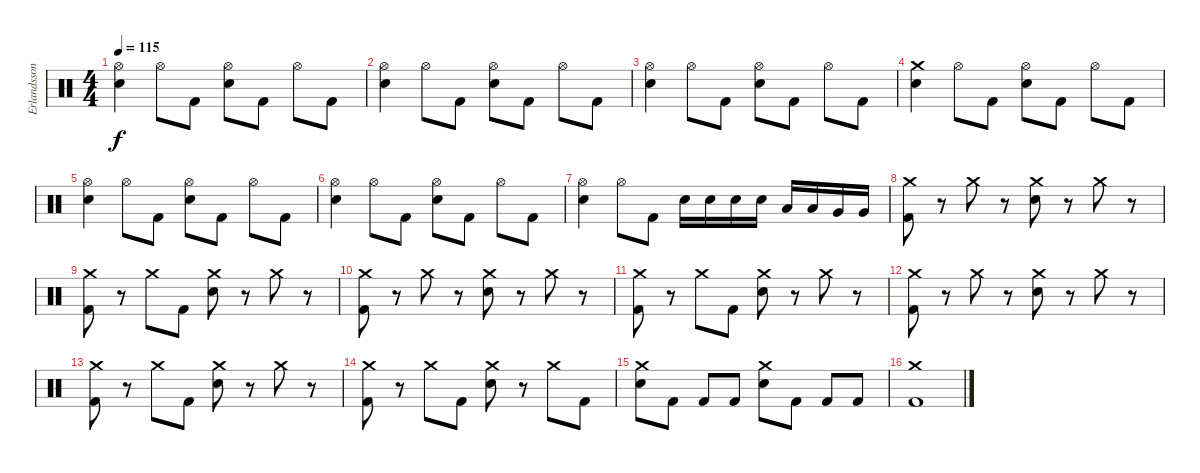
\track ("Erlandsson" "Erlandsson") {instrument percussion}
\staff {score}
\articulation defaults
\ts (4 4)
\tempo 115
\clef neutral
\ks c
("Hi-Hat (open)" "Electric Snare (hit)").4{dy f} "Hi-Hat (open)".8 "Kick (hit) 2".8 ("Hi-Hat (open)" "Electric Snare (hit)").8 "Kick (hit) 2".8 "Hi-Hat (open)".8 "Kick (hit) 2".8 |
("Hi-Hat (open)" "Electric Snare (hit)").4 "Hi-Hat (open)".8 "Kick (hit) 2".8 ("Hi-Hat (open)" "Electric Snare (hit)").8 "Kick (hit) 2".8 "Hi-Hat (open)".8 "Kick (hit) 2".8 |
("Hi-Hat (open)" "Electric Snare (hit)").4 "Hi-Hat (open)".8 "Kick (hit) 2".8 ("Hi-Hat (open)" "Electric Snare (hit)").8 "Kick (hit) 2".8 "Hi-Hat (open)".8 "Kick (hit) 2".8 |
("Crash medium (hit)" "Electric Snare (hit)").4 "Hi-Hat (open)".8 "Kick (hit) 2".8 ("Hi-Hat (open)" "Electric Snare (hit)").8 "Kick (hit) 2".8 "Hi-Hat (open)".8 "Kick (hit) 2".8 |
("Hi-Hat (open)" "Electric Snare (hit)").4 "Hi-Hat (open)".8 "Kick (hit) 2".8 ("Hi-Hat (open)" "Electric Snare (hit)").8 "Kick (hit) 2".8 "Hi-Hat (open)".8 "Kick (hit) 2".8 |
("Hi-Hat (open)" "Electric Snare (hit)").4 "Hi-Hat (open)".8 "Kick (hit) 2".8 ("Hi-Hat (open)" "Electric Snare (hit)").8 "Kick (hit) 2".8 "Hi-Hat (open)".8 "Kick (hit) 2".8 |
("Hi-Hat (open)" "Electric Snare (hit)").4 "Hi-Hat (open)".8 "Kick (hit) 2".8 "Electric Snare (hit)".16 "Electric Snare (hit)".16 "Electric Snare (hit)".16 "Electric Snare (hit)".16 "Low Tom (hit)".16 "Low Tom (hit)".16 "Very Low Tom (hit)".16 "Very Low Tom (hit)".16 |
("Crash medium (hit)" "Kick (hit) 2").8 r.8 "Crash medium (hit)".8 r.8 ("Crash medium (hit)" "Electric Snare (hit)").8 r.8 "Crash medium (hit)".8 r.8 |
("Crash medium (hit)" "Kick (hit) 2").8 r.8 "Crash medium (hit)".8 "Kick (hit) 2".8 ("Crash medium (hit)" "Electric Snare (hit)").8 r.8 "Crash medium (hit)".8 r.8 |
("Crash medium (hit)" "Kick (hit) 2").8 r.8 "Crash medium (hit)".8 r.8 ("Crash medium (hit)" "Electric Snare (hit)").8 r.8 "Crash medium (hit)".8 r.8 |
("Crash medium (hit)" "Kick (hit) 2").8 r.8 "Crash medium (hit)".8 "Kick (hit) 2".8 ("Crash medium (hit)" "Electric Snare (hit)").8 r.8 "Crash medium (hit)".8 r.8 |
("Crash medium (hit)" "Kick (hit) 2").8 r.8 "Crash medium (hit)".8 r.8 ("Crash medium (hit)" "Electric Snare (hit)").8 r.8 "Crash medium (hit)".8 r.8 |
("Crash medium (hit)" "Kick (hit) 2").8 r.8 "Crash medium (hit)".8 "Kick (hit) 2".8 ("Crash medium (hit)" "Electric Snare (hit)").8 r.8 "Crash medium (hit)".8 r.8 |
("Crash medium (hit)" "Kick (hit) 2").8 r.8 "Crash medium (hit)".8 "Kick (hit) 2".8 ("Crash medium (hit)" "Electric Snare (hit)").8 r.8 "Crash medium (hit)".8 "Kick (hit) 2".8 |
("Crash medium (hit)" "Electric Snare (hit)").8 "Kick (hit) 2".8 "Kick (hit) 2".8 "Kick (hit) 2".8 ("Crash medium (hit)" "Electric Snare (hit)").8 "Kick (hit) 2".8 "Kick (hit) 2".8 "Kick (hit) 2".8 |
("Crash medium (hit)" "Kick (hit) 2").1
